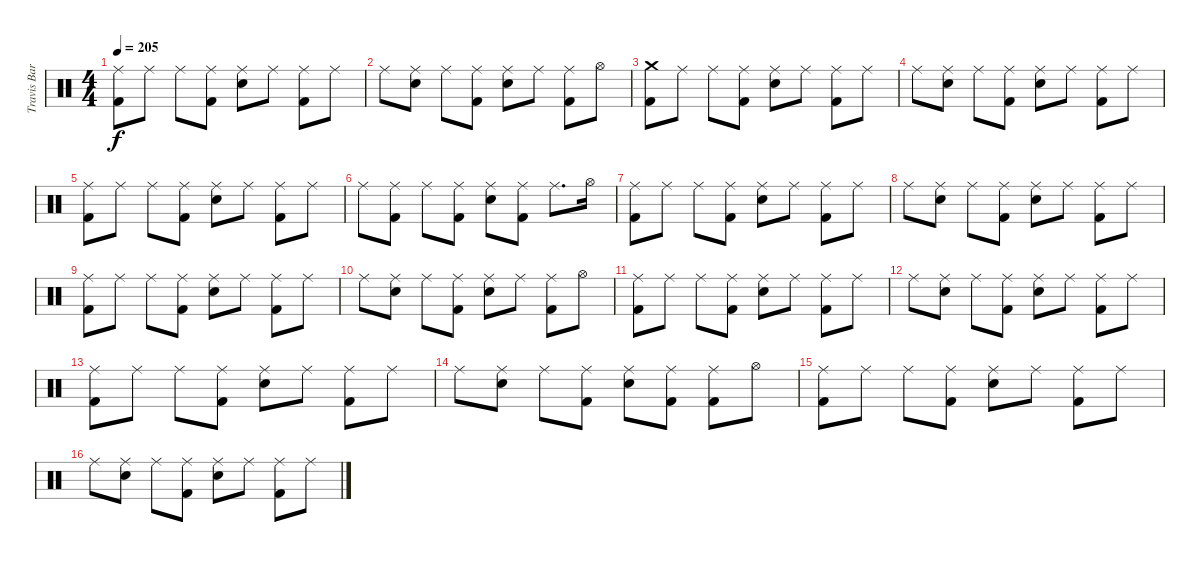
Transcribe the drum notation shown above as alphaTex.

\track ("Travis Barker (Drums)" "Travis Bar") {instrument percussion}
\staff {score}
\articulation defaults
\ts (4 4)
\tempo 205
\clef neutral
\ks c
("Ride (middle)" "Kick (hit) 2").8{dy f} "Ride (middle)".8 "Ride (middle)".8 ("Ride (middle)" "Kick (hit) 2").8 ("Ride (middle)" "Electric Snare (hit)").8 "Ride (middle)".8 ("Ride (middle)" "Kick (hit) 2").8 "Ride (middle)".8 |
"Ride (middle)".8 ("Ride (middle)" "Electric Snare (hit)").8 "Ride (middle)".8 ("Ride (middle)" "Kick (hit) 2").8 ("Ride (middle)" "Electric Snare (hit)").8 "Ride (middle)".8 ("Ride (middle)" "Kick (hit) 2").8 "Hi-Hat (open)".8 |
("Crash medium (hit)" "Kick (hit) 2").8 "Ride (middle)".8 "Ride (middle)".8 ("Ride (middle)" "Kick (hit) 2").8 ("Ride (middle)" "Electric Snare (hit)").8 "Ride (middle)".8 ("Ride (middle)" "Kick (hit) 2").8 "Ride (middle)".8 |
"Ride (middle)".8 ("Ride (middle)" "Electric Snare (hit)").8 "Ride (middle)".8 ("Ride (middle)" "Kick (hit) 2").8 ("Ride (middle)" "Electric Snare (hit)").8 "Ride (middle)".8 ("Ride (middle)" "Kick (hit) 2").8 "Ride (middle)".8 |
("Ride (middle)" "Kick (hit) 2").8 "Ride (middle)".8 "Ride (middle)".8 ("Ride (middle)" "Kick (hit) 2").8 ("Ride (middle)" "Electric Snare (hit)").8 "Ride (middle)".8 ("Ride (middle)" "Kick (hit) 2").8 "Ride (middle)".8 |
"Ride (middle)".8 ("Ride (middle)" "Kick (hit) 2").8 "Ride (middle)".8 ("Ride (middle)" "Kick (hit) 2").8 ("Ride (middle)" "Electric Snare (hit)").8 ("Ride (middle)" "Kick (hit) 2").8 "Ride (middle)".8{d} "Hi-Hat (open)".16 |
("Ride (middle)" "Kick (hit) 2").8 "Ride (middle)".8 "Ride (middle)".8 ("Ride (middle)" "Kick (hit) 2").8 ("Ride (middle)" "Electric Snare (hit)").8 "Ride (middle)".8 ("Ride (middle)" "Kick (hit) 2").8 "Ride (middle)".8 |
"Ride (middle)".8 ("Ride (middle)" "Electric Snare (hit)").8 "Ride (middle)".8 ("Ride (middle)" "Kick (hit) 2").8 ("Ride (middle)" "Electric Snare (hit)").8 "Ride (middle)".8 ("Ride (middle)" "Kick (hit) 2").8 "Ride (middle)".8 |
("Ride (middle)" "Kick (hit) 2").8 "Ride (middle)".8 "Ride (middle)".8 ("Ride (middle)" "Kick (hit) 2").8 ("Ride (middle)" "Electric Snare (hit)").8 "Ride (middle)".8 ("Ride (middle)" "Kick (hit) 2").8 "Ride (middle)".8 |
"Ride (middle)".8 ("Ride (middle)" "Electric Snare (hit)").8 "Ride (middle)".8 ("Ride (middle)" "Kick (hit) 2").8 ("Ride (middle)" "Electric Snare (hit)").8 "Ride (middle)".8 ("Ride (middle)" "Kick (hit) 2").8 "Hi-Hat (open)".8 |
("Ride (middle)" "Kick (hit) 2").8 "Ride (middle)".8 "Ride (middle)".8 ("Ride (middle)" "Kick (hit) 2").8 ("Ride (middle)" "Electric Snare (hit)").8 "Ride (middle)".8 ("Ride (middle)" "Kick (hit) 2").8 "Ride (middle)".8 |
"Ride (middle)".8 ("Ride (middle)" "Electric Snare (hit)").8 "Ride (middle)".8 ("Ride (middle)" "Kick (hit) 2").8 ("Ride (middle)" "Electric Snare (hit)").8 "Ride (middle)".8 ("Ride (middle)" "Kick (hit) 2").8 "Ride (middle)".8 |
("Ride (middle)" "Kick (hit) 2").8 "Ride (middle)".8 "Ride (middle)".8 ("Ride (middle)" "Kick (hit) 2").8 ("Ride (middle)" "Electric Snare (hit)").8 "Ride (middle)".8 ("Ride (middle)" "Kick (hit) 2").8 "Ride (middle)".8 |
"Ride (middle)".8 ("Ride (middle)" "Electric Snare (hit)").8 "Ride (middle)".8 ("Ride (middle)" "Kick (hit) 2").8 ("Ride (middle)" "Electric Snare (hit)").8 ("Ride (middle)" "Kick (hit) 2").8 ("Ride (middle)" "Kick (hit) 2").8 "Hi-Hat (open)".8 |
("Ride (middle)" "Kick (hit) 2").8 "Ride (middle)".8 "Ride (middle)".8 ("Ride (middle)" "Kick (hit) 2").8 ("Ride (middle)" "Electric Snare (hit)").8 "Ride (middle)".8 ("Ride (middle)" "Kick (hit) 2").8 "Ride (middle)".8 |
"Ride (middle)".8 ("Ride (middle)" "Electric Snare (hit)").8 "Ride (middle)".8 ("Ride (middle)" "Kick (hit) 2").8 ("Ride (middle)" "Electric Snare (hit)").8 "Ride (middle)".8 ("Ride (middle)" "Kick (hit) 2").8 "Ride (middle)".8
